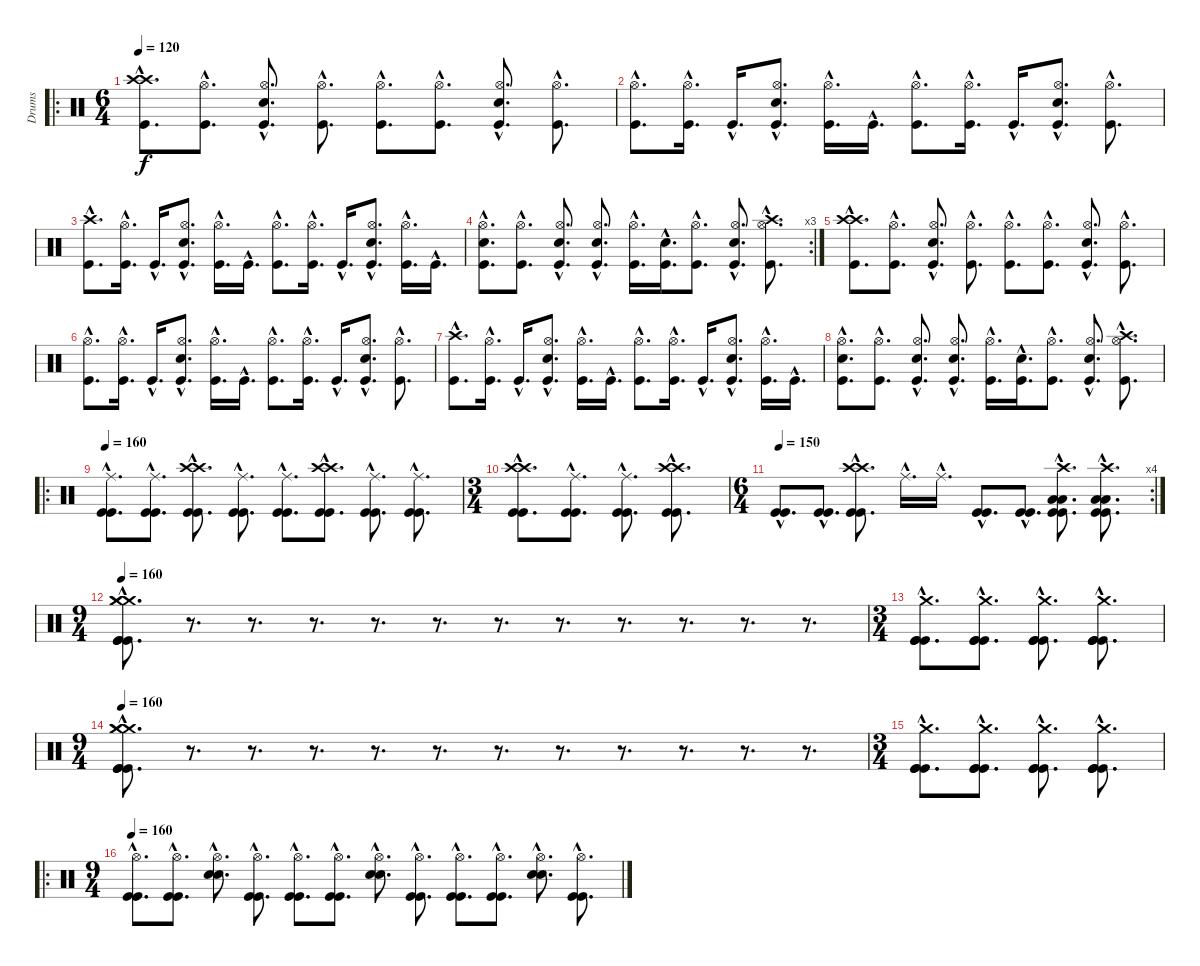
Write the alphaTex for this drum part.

\track ("Drums" "Drums") {instrument percussion}
\staff {score}
\articulation defaults
\ro
\ts (6 4)
\tempo 120
\clef neutral
\ks c
("Crash high (hit)"{hac} "Crash high (hit)"{hac} "Kick (hit)"{hac}).8{d dy f} ("Hi-Hat (open)"{hac} "Kick (hit)"{hac}).8{d} ("Hi-Hat (open)"{hac} "Electric Snare (hit)"{hac} "Kick (hit)"{hac}).8{d} ("Hi-Hat (open)"{hac} "Kick (hit)"{hac}).8{d} ("Hi-Hat (open)"{hac} "Kick (hit)"{hac}).8{d} ("Hi-Hat (open)"{hac} "Kick (hit)"{hac}).8{d} ("Hi-Hat (open)"{hac} "Electric Snare (hit)"{hac} "Kick (hit)"{hac}).8{d} ("Hi-Hat (open)"{hac} "Kick (hit)"{hac}).8{d} |
("Hi-Hat (open)"{hac} "Kick (hit)"{hac}).8{d} ("Hi-Hat (open)"{hac} "Kick (hit)"{hac}).16{d} "Kick (hit)"{hac}.16{d} ("Hi-Hat (open)"{hac} "Electric Snare (hit)"{hac} "Kick (hit)"{hac}).8{d} ("Hi-Hat (open)"{hac} "Kick (hit)"{hac}).16{d} "Kick (hit)"{hac}.16{d} ("Hi-Hat (open)"{hac} "Kick (hit)"{hac}).8{d} ("Hi-Hat (open)"{hac} "Kick (hit)"{hac}).16{d} "Kick (hit)"{hac}.16{d} ("Hi-Hat (open)"{hac} "Electric Snare (hit)"{hac} "Kick (hit)"{hac}).8{d} ("Hi-Hat (open)"{hac} "Kick (hit)"{hac}).8{d} |
("Crash high (hit)"{hac} "Kick (hit)"{hac}).8{d} ("Hi-Hat (open)"{hac} "Kick (hit)"{hac}).16{d} "Kick (hit)"{hac}.16{d} ("Hi-Hat (open)"{hac} "Electric Snare (hit)"{hac} "Kick (hit)"{hac}).8{d} ("Hi-Hat (open)"{hac} "Kick (hit)"{hac}).16{d} "Kick (hit)"{hac}.16{d} ("Hi-Hat (open)"{hac} "Kick (hit)"{hac}).8{d} ("Hi-Hat (open)"{hac} "Kick (hit)"{hac}).16{d} "Kick (hit)"{hac}.16{d} ("Hi-Hat (open)"{hac} "Electric Snare (hit)"{hac} "Kick (hit)"{hac}).8{d} ("Hi-Hat (open)"{hac} "Kick (hit)"{hac}).16{d} "Kick (hit)"{hac}.16{d} |
\rc 3
("Hi-Hat (open)"{hac} "Electric Snare (hit)"{hac} "Kick (hit)"{hac}).8{d} ("Hi-Hat (open)"{hac} "Kick (hit)"{hac}).8{d} ("Hi-Hat (open)"{hac} "Electric Snare (hit)"{hac} "Kick (hit)"{hac}).8{d} ("Hi-Hat (open)"{hac} "Electric Snare (hit)"{hac} "Kick (hit)"{hac}).8{d} ("Hi-Hat (open)"{hac} "Kick (hit)"{hac}).16{d} ("Electric Snare (hit)"{hac} "Kick (hit)"{hac}).16{d} ("Hi-Hat (open)"{hac} "Kick (hit)"{hac}).8{d} ("Electric Snare (hit)"{hac} "Hi-Hat (open)"{hac} "Kick (hit)"{hac}).8{d} ("Hi-Hat (open)"{hac} "Crash high (hit)"{hac} "Kick (hit)"{hac}).8{d} |
("Crash high (hit)"{hac} "Crash high (hit)"{hac} "Kick (hit)"{hac}).8{d} ("Hi-Hat (open)"{hac} "Kick (hit)"{hac}).8{d} ("Hi-Hat (open)"{hac} "Electric Snare (hit)"{hac} "Kick (hit)"{hac}).8{d} ("Hi-Hat (open)"{hac} "Kick (hit)"{hac}).8{d} ("Hi-Hat (open)"{hac} "Kick (hit)"{hac}).8{d} ("Hi-Hat (open)"{hac} "Kick (hit)"{hac}).8{d} ("Hi-Hat (open)"{hac} "Electric Snare (hit)"{hac} "Kick (hit)"{hac}).8{d} ("Hi-Hat (open)"{hac} "Kick (hit)"{hac}).8{d} |
("Hi-Hat (open)"{hac} "Kick (hit)"{hac}).8{d} ("Hi-Hat (open)"{hac} "Kick (hit)"{hac}).16{d} "Kick (hit)"{hac}.16{d} ("Hi-Hat (open)"{hac} "Electric Snare (hit)"{hac} "Kick (hit)"{hac}).8{d} ("Hi-Hat (open)"{hac} "Kick (hit)"{hac}).16{d} "Kick (hit)"{hac}.16{d} ("Hi-Hat (open)"{hac} "Kick (hit)"{hac}).8{d} ("Hi-Hat (open)"{hac} "Kick (hit)"{hac}).16{d} "Kick (hit)"{hac}.16{d} ("Hi-Hat (open)"{hac} "Electric Snare (hit)"{hac} "Kick (hit)"{hac}).8{d} ("Hi-Hat (open)"{hac} "Kick (hit)"{hac}).8{d} |
("Crash high (hit)"{hac} "Kick (hit)"{hac}).8{d} ("Hi-Hat (open)"{hac} "Kick (hit)"{hac}).16{d} "Kick (hit)"{hac}.16{d} ("Hi-Hat (open)"{hac} "Electric Snare (hit)"{hac} "Kick (hit)"{hac}).8{d} ("Hi-Hat (open)"{hac} "Kick (hit)"{hac}).16{d} "Kick (hit)"{hac}.16{d} ("Hi-Hat (open)"{hac} "Kick (hit)"{hac}).8{d} ("Hi-Hat (open)"{hac} "Kick (hit)"{hac}).16{d} "Kick (hit)"{hac}.16{d} ("Hi-Hat (open)"{hac} "Electric Snare (hit)"{hac} "Kick (hit)"{hac}).8{d} ("Hi-Hat (open)"{hac} "Kick (hit)"{hac}).16{d} "Kick (hit)"{hac}.16{d} |
("Hi-Hat (open)"{hac} "Electric Snare (hit)"{hac} "Kick (hit)"{hac}).8{d} ("Hi-Hat (open)"{hac} "Kick (hit)"{hac}).8{d} ("Hi-Hat (open)"{hac} "Electric Snare (hit)"{hac} "Kick (hit)"{hac}).8{d} ("Hi-Hat (open)"{hac} "Electric Snare (hit)"{hac} "Kick (hit)"{hac}).8{d} ("Hi-Hat (open)"{hac} "Kick (hit)"{hac}).16{d} ("Electric Snare (hit)"{hac} "Kick (hit)"{hac}).16{d} ("Hi-Hat (open)"{hac} "Kick (hit)"{hac}).8{d} ("Electric Snare (hit)"{hac} "Hi-Hat (open)"{hac} "Kick (hit)"{hac}).8{d} ("Hi-Hat (open)"{hac} "Crash high (hit)"{hac} "Kick (hit)"{hac}).8{d} |
\ro
\tempo 160
("Ride (middle)"{hac} "Kick (hit)"{hac} "Kick (hit)"{hac}).8{d} ("Ride (middle)"{hac} "Kick (hit)"{hac} "Kick (hit)"{hac}).8{d} ("Crash high (hit)"{hac} "Crash high (hit)"{hac} "Kick (hit)"{hac} "Kick (hit)"{hac}).8{d} ("Ride (middle)"{hac} "Kick (hit)"{hac} "Kick (hit)"{hac}).8{d} ("Ride (middle)"{hac} "Kick (hit)"{hac} "Kick (hit)"{hac}).8{d} ("Crash high (hit)"{hac} "Crash high (hit)"{hac} "Kick (hit)"{hac} "Kick (hit)"{hac}).8{d} ("Ride (middle)"{hac} "Kick (hit)"{hac} "Kick (hit)"{hac}).8{d} ("Ride (middle)"{hac} "Kick (hit)"{hac} "Kick (hit)"{hac}).8{d} |
\ts (3 4)
("Crash high (hit)"{hac} "Crash high (hit)"{hac} "Kick (hit)"{hac} "Kick (hit)"{hac}).8{d} ("Ride (middle)"{hac} "Kick (hit)"{hac} "Kick (hit)"{hac}).8{d} ("Ride (middle)"{hac} "Kick (hit)"{hac} "Kick (hit)"{hac}).8{d} ("Crash high (hit)"{hac} "Crash high (hit)"{hac} "Kick (hit)"{hac} "Kick (hit)"{hac}).8{d} |
\rc 4
\ts (6 4)
\tempo 150
("Kick (hit)"{hac} "Kick (hit)"{hac}).8{d} ("Kick (hit)"{hac} "Kick (hit)"{hac}).8{d} ("Crash high (hit)"{hac} "Crash high (hit)"{hac} "Kick (hit)"{hac} "Kick (hit)"{hac}).8{d} "Ride (middle)"{hac}.16{d} "Ride (middle)"{hac}.16{d} ("Kick (hit)"{hac} "Kick (hit)"{hac}).8{d} ("Kick (hit)"{hac} "Kick (hit)"{hac}).8{d} ("Low Tom (hit)"{hac} "Low Tom (hit)"{hac} "Crash high (hit)"{hac} "Kick (hit)"{hac} "Kick (hit)"{hac}).8{d} ("Low Tom (hit)"{hac} "Low Tom (hit)"{hac} "Crash high (hit)"{hac} "Kick (hit)"{hac} "Kick (hit)"{hac}).8{d} |
\ts (9 4)
\tempo 160
("Crash medium (hit)"{hac} "Crash medium (hit)"{hac} "Crash medium (hit)"{hac} "Kick (hit)"{hac} "Kick (hit)"{hac} "Kick (hit)"{hac}).8{d} r.8{d} r.8{d} r.8{d} r.8{d} r.8{d} r.8{d} r.8{d} r.8{d} r.8{d} r.8{d} r.8{d} |
\ts (3 4)
("Crash medium (hit)"{hac} "Kick (hit)"{hac} "Kick (hit)"{hac} "Kick (hit)"{hac}).8{d} ("Crash medium (hit)"{hac} "Kick (hit)"{hac} "Kick (hit)"{hac} "Kick (hit)"{hac}).8{d} ("Crash medium (hit)"{hac} "Kick (hit)"{hac} "Kick (hit)"{hac} "Kick (hit)"{hac}).8{d} ("Crash medium (hit)"{hac} "Kick (hit)"{hac} "Kick (hit)"{hac} "Kick (hit)"{hac}).8{d} |
\ts (9 4)
\tempo 160
("Crash medium (hit)"{hac} "Crash medium (hit)"{hac} "Crash medium (hit)"{hac} "Kick (hit)"{hac} "Kick (hit)"{hac} "Kick (hit)"{hac}).8{d} r.8{d} r.8{d} r.8{d} r.8{d} r.8{d} r.8{d} r.8{d} r.8{d} r.8{d} r.8{d} r.8{d} |
\ts (3 4)
("Crash medium (hit)"{hac} "Kick (hit)"{hac} "Kick (hit)"{hac} "Kick (hit)"{hac}).8{d} ("Crash medium (hit)"{hac} "Kick (hit)"{hac} "Kick (hit)"{hac} "Kick (hit)"{hac}).8{d} ("Crash medium (hit)"{hac} "Kick (hit)"{hac} "Kick (hit)"{hac} "Kick (hit)"{hac}).8{d} ("Crash medium (hit)"{hac} "Kick (hit)"{hac} "Kick (hit)"{hac} "Kick (hit)"{hac}).8{d} |
\ro
\ts (9 4)
\tempo 160
("Hi-Hat (open)"{hac} "Kick (hit)"{hac} "Kick (hit)"{hac}).8{d} ("Hi-Hat (open)"{hac} "Kick (hit)"{hac} "Kick (hit)"{hac}).8{d} ("Hi-Hat (open)"{hac} "Electric Snare (hit)"{hac} "Electric Snare (hit)"{hac}).8{d} ("Hi-Hat (open)"{hac} "Kick (hit)"{hac} "Kick (hit)"{hac}).8{d} ("Hi-Hat (open)"{hac} "Kick (hit)"{hac} "Kick (hit)"{hac}).8{d} ("Hi-Hat (open)"{hac} "Kick (hit)"{hac} "Kick (hit)"{hac}).8{d} ("Hi-Hat (open)"{hac} "Electric Snare (hit)"{hac} "Electric Snare (hit)"{hac}).8{d} ("Hi-Hat (open)"{hac} "Kick (hit)"{hac} "Kick (hit)"{hac}).8{d} ("Hi-Hat (open)"{hac} "Kick (hit)"{hac} "Kick (hit)"{hac}).8{d} ("Hi-Hat (open)"{hac} "Kick (hit)"{hac} "Kick (hit)"{hac}).8{d} ("Hi-Hat (open)"{hac} "Electric Snare (hit)"{hac} "Electric Snare (hit)"{hac}).8{d} ("Hi-Hat (open)"{hac} "Kick (hit)"{hac} "Kick (hit)"{hac}).8{d}
